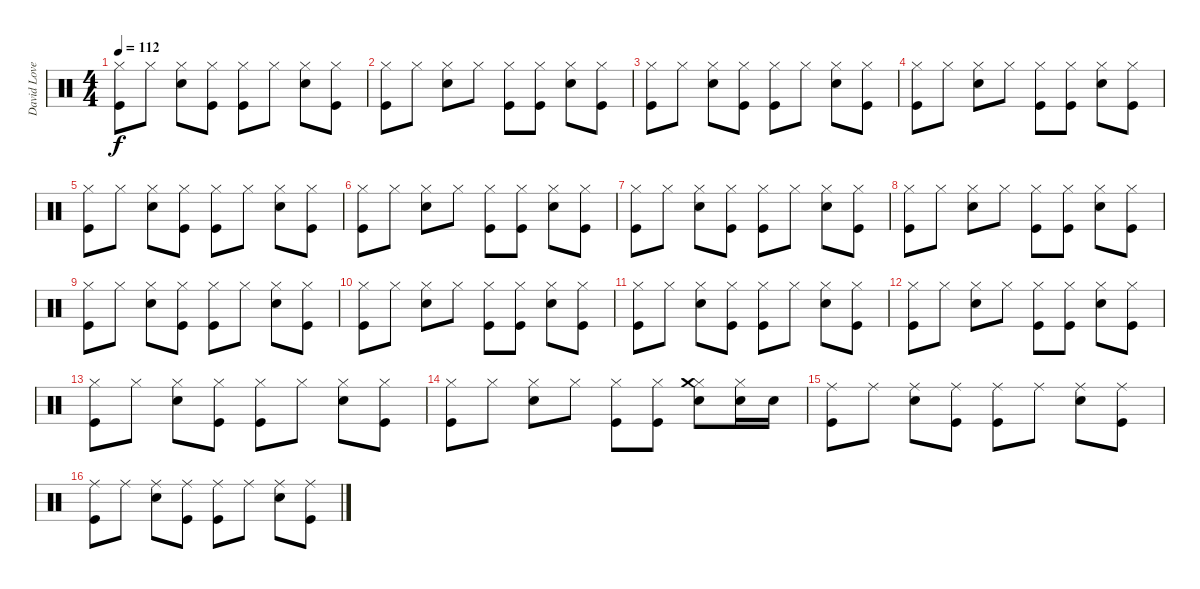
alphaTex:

\track ("David Lovering" "David Love") {instrument percussion}
\staff {score}
\articulation defaults
\ts (4 4)
\tempo 112
\clef neutral
\ks c
("Hi-Hat (closed)" "Kick (hit)").8{dy f} "Hi-Hat (closed)".8 ("Hi-Hat (closed)" "Snare (hit) 2").8 ("Hi-Hat (closed)" "Kick (hit)").8 ("Hi-Hat (closed)" "Kick (hit)").8 "Hi-Hat (closed)".8 ("Hi-Hat (closed)" "Snare (hit) 2").8 ("Hi-Hat (closed)" "Kick (hit)").8 |
("Hi-Hat (closed)" "Kick (hit)").8 "Hi-Hat (closed)".8 ("Hi-Hat (closed)" "Snare (hit) 2").8 "Hi-Hat (closed)".8 ("Hi-Hat (closed)" "Kick (hit)").8 ("Hi-Hat (closed)" "Kick (hit)").8 ("Hi-Hat (closed)" "Snare (hit) 2").8 ("Hi-Hat (closed)" "Kick (hit)").8 |
("Hi-Hat (closed)" "Kick (hit)").8 "Hi-Hat (closed)".8 ("Hi-Hat (closed)" "Snare (hit) 2").8 ("Hi-Hat (closed)" "Kick (hit)").8 ("Hi-Hat (closed)" "Kick (hit)").8 "Hi-Hat (closed)".8 ("Hi-Hat (closed)" "Snare (hit) 2").8 ("Hi-Hat (closed)" "Kick (hit)").8 |
("Hi-Hat (closed)" "Kick (hit)").8 "Hi-Hat (closed)".8 ("Hi-Hat (closed)" "Snare (hit) 2").8 "Hi-Hat (closed)".8 ("Hi-Hat (closed)" "Kick (hit)").8 ("Hi-Hat (closed)" "Kick (hit)").8 ("Hi-Hat (closed)" "Snare (hit) 2").8 ("Hi-Hat (closed)" "Kick (hit)").8 |
("Hi-Hat (closed)" "Kick (hit)").8 "Hi-Hat (closed)".8 ("Hi-Hat (closed)" "Snare (hit) 2").8 ("Hi-Hat (closed)" "Kick (hit)").8 ("Hi-Hat (closed)" "Kick (hit)").8 "Hi-Hat (closed)".8 ("Hi-Hat (closed)" "Snare (hit) 2").8 ("Hi-Hat (closed)" "Kick (hit)").8 |
("Hi-Hat (closed)" "Kick (hit)").8 "Hi-Hat (closed)".8 ("Hi-Hat (closed)" "Snare (hit) 2").8 "Hi-Hat (closed)".8 ("Hi-Hat (closed)" "Kick (hit)").8 ("Hi-Hat (closed)" "Kick (hit)").8 ("Hi-Hat (closed)" "Snare (hit) 2").8 ("Hi-Hat (closed)" "Kick (hit)").8 |
\section ("" "")
("Hi-Hat (closed)" "Kick (hit)").8 "Hi-Hat (closed)".8 ("Hi-Hat (closed)" "Snare (hit) 2").8 ("Hi-Hat (closed)" "Kick (hit)").8 ("Hi-Hat (closed)" "Kick (hit)").8 "Hi-Hat (closed)".8 ("Hi-Hat (closed)" "Snare (hit) 2").8 ("Hi-Hat (closed)" "Kick (hit)").8 |
("Hi-Hat (closed)" "Kick (hit)").8 "Hi-Hat (closed)".8 ("Hi-Hat (closed)" "Snare (hit) 2").8 "Hi-Hat (closed)".8 ("Hi-Hat (closed)" "Kick (hit)").8 ("Hi-Hat (closed)" "Kick (hit)").8 ("Hi-Hat (closed)" "Snare (hit) 2").8 ("Hi-Hat (closed)" "Kick (hit)").8 |
("Hi-Hat (closed)" "Kick (hit)").8 "Hi-Hat (closed)".8 ("Hi-Hat (closed)" "Snare (hit) 2").8 ("Hi-Hat (closed)" "Kick (hit)").8 ("Hi-Hat (closed)" "Kick (hit)").8 "Hi-Hat (closed)".8 ("Hi-Hat (closed)" "Snare (hit) 2").8 ("Hi-Hat (closed)" "Kick (hit)").8 |
("Hi-Hat (closed)" "Kick (hit)").8 "Hi-Hat (closed)".8 ("Hi-Hat (closed)" "Snare (hit) 2").8 "Hi-Hat (closed)".8 ("Hi-Hat (closed)" "Kick (hit)").8 ("Hi-Hat (closed)" "Kick (hit)").8 ("Hi-Hat (closed)" "Snare (hit) 2").8 ("Hi-Hat (closed)" "Kick (hit)").8 |
("Hi-Hat (closed)" "Kick (hit)").8 "Hi-Hat (closed)".8 ("Hi-Hat (closed)" "Snare (hit) 2").8 ("Hi-Hat (closed)" "Kick (hit)").8 ("Hi-Hat (closed)" "Kick (hit)").8 "Hi-Hat (closed)".8 ("Hi-Hat (closed)" "Snare (hit) 2").8 ("Hi-Hat (closed)" "Kick (hit)").8 |
("Hi-Hat (closed)" "Kick (hit)").8 "Hi-Hat (closed)".8 ("Hi-Hat (closed)" "Snare (hit) 2").8 "Hi-Hat (closed)".8 ("Hi-Hat (closed)" "Kick (hit)").8 ("Hi-Hat (closed)" "Kick (hit)").8 ("Hi-Hat (closed)" "Snare (hit) 2").8 ("Hi-Hat (closed)" "Kick (hit)").8 |
("Hi-Hat (closed)" "Kick (hit)").8 "Hi-Hat (closed)".8 ("Hi-Hat (closed)" "Snare (hit) 2").8 ("Hi-Hat (closed)" "Kick (hit)").8 ("Hi-Hat (closed)" "Kick (hit)").8 "Hi-Hat (closed)".8 ("Hi-Hat (closed)" "Snare (hit) 2").8 ("Hi-Hat (closed)" "Kick (hit)").8 |
("Hi-Hat (closed)" "Kick (hit)").8 "Hi-Hat (closed)".8 ("Hi-Hat (closed)" "Snare (hit) 2").8 "Hi-Hat (closed)".8 ("Hi-Hat (closed)" "Kick (hit)").8 ("Hi-Hat (closed)" "Kick (hit)").8 ("Hi-Hat (closed)" "Crash medium (hit)" "Snare (hit) 2").8 ("Hi-Hat (closed)" "Snare (hit) 2").16 "Snare (hit) 2".16 |
("Ride (middle)" "Kick (hit)").8 "Ride (middle)".8 ("Ride (middle)" "Snare (hit) 2").8 ("Ride (middle)" "Kick (hit)").8 ("Ride (middle)" "Kick (hit)").8 "Ride (middle)".8 ("Ride (middle)" "Snare (hit) 2").8 ("Ride (middle)" "Kick (hit)").8 |
("Ride (middle)" "Kick (hit)").8 "Ride (middle)".8 ("Ride (middle)" "Snare (hit) 2").8 ("Ride (middle)" "Kick (hit)").8 ("Ride (middle)" "Kick (hit)").8 "Ride (middle)".8 ("Ride (middle)" "Snare (hit) 2").8 ("Ride (middle)" "Kick (hit)").8
